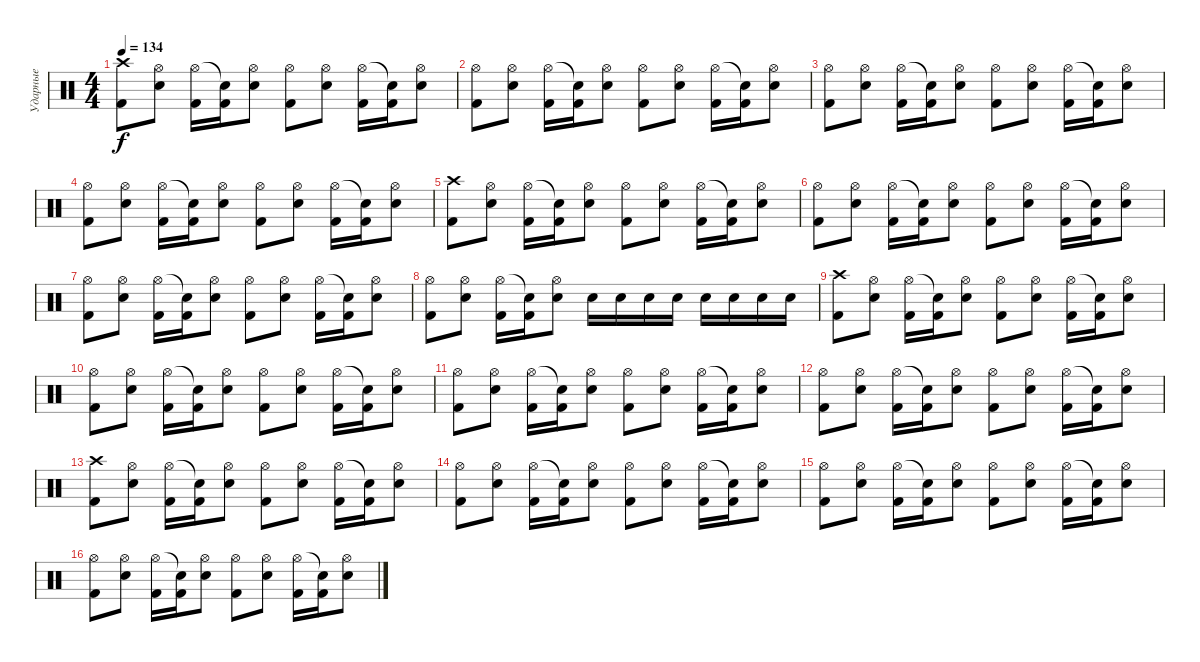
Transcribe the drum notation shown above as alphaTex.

\track ("Ударные" "Ударные") {instrument percussion}
\staff {score}
\articulation defaults
\ts (4 4)
\tempo 134
\clef neutral
\ks c
("Crash high (hit)" "Kick (hit) 2").8{dy f} ("Hi-Hat (open)" "Snare (hit) 2").8 ("Hi-Hat (open)" "Kick (hit) 2").16 ("Snare (hit)"{t} "Kick (hit) 2").16 ("Hi-Hat (open)" "Snare (hit) 2").8 ("Hi-Hat (open)" "Kick (hit) 2").8 ("Hi-Hat (open)" "Snare (hit) 2").8 ("Hi-Hat (open)" "Kick (hit) 2").16 ("Snare (hit)"{t} "Kick (hit) 2").16 ("Hi-Hat (open)" "Snare (hit) 2").8 |
("Hi-Hat (open)" "Kick (hit) 2").8 ("Hi-Hat (open)" "Snare (hit) 2").8 ("Hi-Hat (open)" "Kick (hit) 2").16 ("Snare (hit)"{t} "Kick (hit) 2").16 ("Hi-Hat (open)" "Snare (hit) 2").8 ("Hi-Hat (open)" "Kick (hit) 2").8 ("Hi-Hat (open)" "Snare (hit) 2").8 ("Hi-Hat (open)" "Kick (hit) 2").16 ("Snare (hit)"{t} "Kick (hit) 2").16 ("Hi-Hat (open)" "Snare (hit) 2").8 |
("Hi-Hat (open)" "Kick (hit) 2").8 ("Hi-Hat (open)" "Snare (hit) 2").8 ("Hi-Hat (open)" "Kick (hit) 2").16 ("Snare (hit)"{t} "Kick (hit) 2").16 ("Hi-Hat (open)" "Snare (hit) 2").8 ("Hi-Hat (open)" "Kick (hit) 2").8 ("Hi-Hat (open)" "Snare (hit) 2").8 ("Hi-Hat (open)" "Kick (hit) 2").16 ("Snare (hit)"{t} "Kick (hit) 2").16 ("Hi-Hat (open)" "Snare (hit) 2").8 |
("Hi-Hat (open)" "Kick (hit) 2").8 ("Hi-Hat (open)" "Snare (hit) 2").8 ("Hi-Hat (open)" "Kick (hit) 2").16 ("Snare (hit)"{t} "Kick (hit) 2").16 ("Hi-Hat (open)" "Snare (hit) 2").8 ("Hi-Hat (open)" "Kick (hit) 2").8 ("Hi-Hat (open)" "Snare (hit) 2").8 ("Hi-Hat (open)" "Kick (hit) 2").16 ("Snare (hit)"{t} "Kick (hit) 2").16 ("Hi-Hat (open)" "Snare (hit) 2").8 |
("Crash high (hit)" "Kick (hit) 2").8 ("Hi-Hat (open)" "Snare (hit) 2").8 ("Hi-Hat (open)" "Kick (hit) 2").16 ("Snare (hit)"{t} "Kick (hit) 2").16 ("Hi-Hat (open)" "Snare (hit) 2").8 ("Hi-Hat (open)" "Kick (hit) 2").8 ("Hi-Hat (open)" "Snare (hit) 2").8 ("Hi-Hat (open)" "Kick (hit) 2").16 ("Snare (hit)"{t} "Kick (hit) 2").16 ("Hi-Hat (open)" "Snare (hit) 2").8 |
("Hi-Hat (open)" "Kick (hit) 2").8 ("Hi-Hat (open)" "Snare (hit) 2").8 ("Hi-Hat (open)" "Kick (hit) 2").16 ("Snare (hit)"{t} "Kick (hit) 2").16 ("Hi-Hat (open)" "Snare (hit) 2").8 ("Hi-Hat (open)" "Kick (hit) 2").8 ("Hi-Hat (open)" "Snare (hit) 2").8 ("Hi-Hat (open)" "Kick (hit) 2").16 ("Snare (hit)"{t} "Kick (hit) 2").16 ("Hi-Hat (open)" "Snare (hit) 2").8 |
("Hi-Hat (open)" "Kick (hit) 2").8 ("Hi-Hat (open)" "Snare (hit) 2").8 ("Hi-Hat (open)" "Kick (hit) 2").16 ("Snare (hit)"{t} "Kick (hit) 2").16 ("Hi-Hat (open)" "Snare (hit) 2").8 ("Hi-Hat (open)" "Kick (hit) 2").8 ("Hi-Hat (open)" "Snare (hit) 2").8 ("Hi-Hat (open)" "Kick (hit) 2").16 ("Snare (hit)"{t} "Kick (hit) 2").16 ("Hi-Hat (open)" "Snare (hit) 2").8 |
("Hi-Hat (open)" "Kick (hit) 2").8 ("Hi-Hat (open)" "Snare (hit) 2").8 ("Hi-Hat (open)" "Kick (hit) 2").16 ("Snare (hit)"{t} "Kick (hit) 2").16 ("Hi-Hat (open)" "Snare (hit) 2").8 "Snare (hit) 2".16 "Snare (hit) 2".16 "Snare (hit) 2".16 "Snare (hit) 2".16 "Snare (hit) 2".16 "Snare (hit) 2".16 "Snare (hit) 2".16 "Snare (hit) 2".16 |
("Crash high (hit)" "Kick (hit) 2").8 ("Hi-Hat (open)" "Snare (hit) 2").8 ("Hi-Hat (open)" "Kick (hit) 2").16 ("Snare (hit)"{t} "Kick (hit) 2").16 ("Hi-Hat (open)" "Snare (hit) 2").8 ("Hi-Hat (open)" "Kick (hit) 2").8 ("Hi-Hat (open)" "Snare (hit) 2").8 ("Hi-Hat (open)" "Kick (hit) 2").16 ("Snare (hit)"{t} "Kick (hit) 2").16 ("Hi-Hat (open)" "Snare (hit) 2").8 |
("Hi-Hat (open)" "Kick (hit) 2").8 ("Hi-Hat (open)" "Snare (hit) 2").8 ("Hi-Hat (open)" "Kick (hit) 2").16 ("Snare (hit)"{t} "Kick (hit) 2").16 ("Hi-Hat (open)" "Snare (hit) 2").8 ("Hi-Hat (open)" "Kick (hit) 2").8 ("Hi-Hat (open)" "Snare (hit) 2").8 ("Hi-Hat (open)" "Kick (hit) 2").16 ("Snare (hit)"{t} "Kick (hit) 2").16 ("Hi-Hat (open)" "Snare (hit) 2").8 |
("Hi-Hat (open)" "Kick (hit) 2").8 ("Hi-Hat (open)" "Snare (hit) 2").8 ("Hi-Hat (open)" "Kick (hit) 2").16 ("Snare (hit)"{t} "Kick (hit) 2").16 ("Hi-Hat (open)" "Snare (hit) 2").8 ("Hi-Hat (open)" "Kick (hit) 2").8 ("Hi-Hat (open)" "Snare (hit) 2").8 ("Hi-Hat (open)" "Kick (hit) 2").16 ("Snare (hit)"{t} "Kick (hit) 2").16 ("Hi-Hat (open)" "Snare (hit) 2").8 |
("Hi-Hat (open)" "Kick (hit) 2").8 ("Hi-Hat (open)" "Snare (hit) 2").8 ("Hi-Hat (open)" "Kick (hit) 2").16 ("Snare (hit)"{t} "Kick (hit) 2").16 ("Hi-Hat (open)" "Snare (hit) 2").8 ("Hi-Hat (open)" "Kick (hit) 2").8 ("Hi-Hat (open)" "Snare (hit) 2").8 ("Hi-Hat (open)" "Kick (hit) 2").16 ("Snare (hit)"{t} "Kick (hit) 2").16 ("Hi-Hat (open)" "Snare (hit) 2").8 |
("Crash high (hit)" "Kick (hit) 2").8 ("Hi-Hat (open)" "Snare (hit) 2").8 ("Hi-Hat (open)" "Kick (hit) 2").16 ("Snare (hit)"{t} "Kick (hit) 2").16 ("Hi-Hat (open)" "Snare (hit) 2").8 ("Hi-Hat (open)" "Kick (hit) 2").8 ("Hi-Hat (open)" "Snare (hit) 2").8 ("Hi-Hat (open)" "Kick (hit) 2").16 ("Snare (hit)"{t} "Kick (hit) 2").16 ("Hi-Hat (open)" "Snare (hit) 2").8 |
("Hi-Hat (open)" "Kick (hit) 2").8 ("Hi-Hat (open)" "Snare (hit) 2").8 ("Hi-Hat (open)" "Kick (hit) 2").16 ("Snare (hit)"{t} "Kick (hit) 2").16 ("Hi-Hat (open)" "Snare (hit) 2").8 ("Hi-Hat (open)" "Kick (hit) 2").8 ("Hi-Hat (open)" "Snare (hit) 2").8 ("Hi-Hat (open)" "Kick (hit) 2").16 ("Snare (hit)"{t} "Kick (hit) 2").16 ("Hi-Hat (open)" "Snare (hit) 2").8 |
("Hi-Hat (open)" "Kick (hit) 2").8 ("Hi-Hat (open)" "Snare (hit) 2").8 ("Hi-Hat (open)" "Kick (hit) 2").16 ("Snare (hit)"{t} "Kick (hit) 2").16 ("Hi-Hat (open)" "Snare (hit) 2").8 ("Hi-Hat (open)" "Kick (hit) 2").8 ("Hi-Hat (open)" "Snare (hit) 2").8 ("Hi-Hat (open)" "Kick (hit) 2").16 ("Snare (hit)"{t} "Kick (hit) 2").16 ("Hi-Hat (open)" "Snare (hit) 2").8 |
("Hi-Hat (open)" "Kick (hit) 2").8 ("Hi-Hat (open)" "Snare (hit) 2").8 ("Hi-Hat (open)" "Kick (hit) 2").16 ("Snare (hit)"{t} "Kick (hit) 2").16 ("Hi-Hat (open)" "Snare (hit) 2").8 ("Hi-Hat (open)" "Kick (hit) 2").8 ("Hi-Hat (open)" "Snare (hit) 2").8 ("Hi-Hat (open)" "Kick (hit) 2").16 ("Snare (hit)"{t} "Kick (hit) 2").16 ("Hi-Hat (open)" "Snare (hit) 2").8
